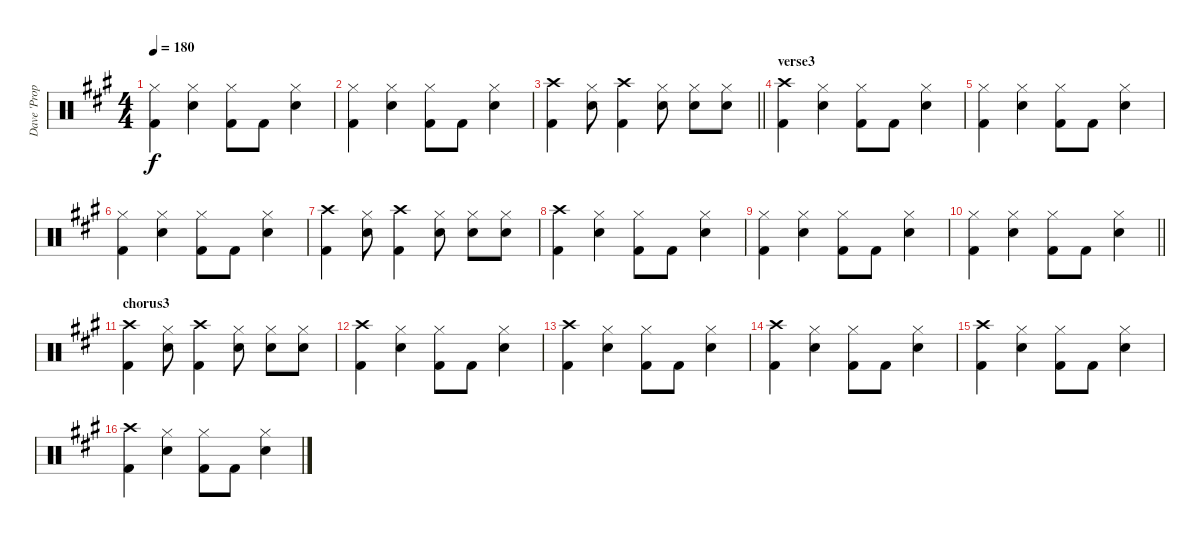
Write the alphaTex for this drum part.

\track ("Dave 'Proper' Caution" "Dave 'Prop") {instrument percussion}
\staff {score}
\articulation defaults
\ts (4 4)
\tempo 180
\clef neutral
\ks a
("Hi-Hat (closed)" "Kick (hit) 2").4{dy f} ("Hi-Hat (closed)" "Electric Snare (hit)").4 ("Hi-Hat (closed)" "Kick (hit) 2").8 "Kick (hit) 2".8 ("Hi-Hat (closed)" "Electric Snare (hit)").4 |
("Hi-Hat (closed)" "Kick (hit) 2").4 ("Hi-Hat (closed)" "Electric Snare (hit)").4 ("Hi-Hat (closed)" "Kick (hit) 2").8 "Kick (hit) 2".8 ("Hi-Hat (closed)" "Electric Snare (hit)").4 |
\barLineRight lightlight
("Crash high (hit)" "Kick (hit) 2").4 ("Hi-Hat (closed)" "Electric Snare (hit)").8 ("Crash high (hit)" "Kick (hit) 2").4 ("Hi-Hat (closed)" "Electric Snare (hit)").8 ("Hi-Hat (closed)" "Electric Snare (hit)").8 ("Hi-Hat (closed)" "Electric Snare (hit)").8 |
\section ("" "verse3")
("Crash high (hit)" "Kick (hit) 2").4 ("Hi-Hat (closed)" "Electric Snare (hit)").4 ("Hi-Hat (closed)" "Kick (hit) 2").8 "Kick (hit) 2".8 ("Hi-Hat (closed)" "Electric Snare (hit)").4 |
("Hi-Hat (closed)" "Kick (hit) 2").4 ("Hi-Hat (closed)" "Electric Snare (hit)").4 ("Hi-Hat (closed)" "Kick (hit) 2").8 "Kick (hit) 2".8 ("Hi-Hat (closed)" "Electric Snare (hit)").4 |
("Hi-Hat (closed)" "Kick (hit) 2").4 ("Hi-Hat (closed)" "Electric Snare (hit)").4 ("Hi-Hat (closed)" "Kick (hit) 2").8 "Kick (hit) 2".8 ("Hi-Hat (closed)" "Electric Snare (hit)").4 |
("Crash high (hit)" "Kick (hit) 2").4 ("Hi-Hat (closed)" "Electric Snare (hit)").8 ("Crash high (hit)" "Kick (hit) 2").4 ("Hi-Hat (closed)" "Electric Snare (hit)").8 ("Hi-Hat (closed)" "Electric Snare (hit)").8 ("Hi-Hat (closed)" "Electric Snare (hit)").8 |
("Crash high (hit)" "Kick (hit) 2").4 ("Hi-Hat (closed)" "Electric Snare (hit)").4 ("Hi-Hat (closed)" "Kick (hit) 2").8 "Kick (hit) 2".8 ("Hi-Hat (closed)" "Electric Snare (hit)").4 |
("Hi-Hat (closed)" "Kick (hit) 2").4 ("Hi-Hat (closed)" "Electric Snare (hit)").4 ("Hi-Hat (closed)" "Kick (hit) 2").8 "Kick (hit) 2".8 ("Hi-Hat (closed)" "Electric Snare (hit)").4 |
\barLineRight lightlight
("Hi-Hat (closed)" "Kick (hit) 2").4 ("Hi-Hat (closed)" "Electric Snare (hit)").4 ("Hi-Hat (closed)" "Kick (hit) 2").8 "Kick (hit) 2".8 ("Hi-Hat (closed)" "Electric Snare (hit)").4 |
\section ("" "chorus3")
("Crash high (hit)" "Kick (hit) 2").4 ("Hi-Hat (closed)" "Electric Snare (hit)").8 ("Crash high (hit)" "Kick (hit) 2").4 ("Hi-Hat (closed)" "Electric Snare (hit)").8 ("Hi-Hat (closed)" "Electric Snare (hit)").8 ("Hi-Hat (closed)" "Electric Snare (hit)").8 |
("Crash high (hit)" "Kick (hit) 2").4 ("Hi-Hat (closed)" "Electric Snare (hit)").4 ("Hi-Hat (closed)" "Kick (hit) 2").8 "Kick (hit) 2".8 ("Hi-Hat (closed)" "Electric Snare (hit)").4 |
("Crash high (hit)" "Kick (hit) 2").4 ("Hi-Hat (closed)" "Electric Snare (hit)").4 ("Hi-Hat (closed)" "Kick (hit) 2").8 "Kick (hit) 2".8 ("Hi-Hat (closed)" "Electric Snare (hit)").4 |
("Crash high (hit)" "Kick (hit) 2").4 ("Hi-Hat (closed)" "Electric Snare (hit)").4 ("Hi-Hat (closed)" "Kick (hit) 2").8 "Kick (hit) 2".8 ("Hi-Hat (closed)" "Electric Snare (hit)").4 |
("Crash high (hit)" "Kick (hit) 2").4 ("Hi-Hat (closed)" "Electric Snare (hit)").4 ("Hi-Hat (closed)" "Kick (hit) 2").8 "Kick (hit) 2".8 ("Hi-Hat (closed)" "Electric Snare (hit)").4 |
("Crash high (hit)" "Kick (hit) 2").4 ("Hi-Hat (closed)" "Electric Snare (hit)").4 ("Hi-Hat (closed)" "Kick (hit) 2").8 "Kick (hit) 2".8 ("Hi-Hat (closed)" "Electric Snare (hit)").4
